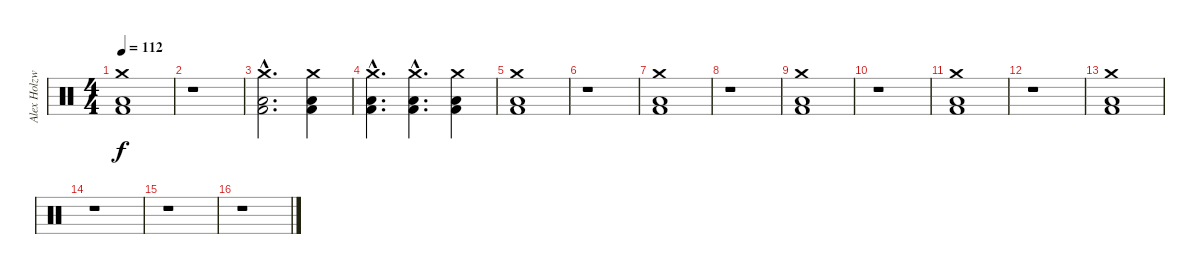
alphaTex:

\track ("Alex Holzwarth - Drums" "Alex Holzw") {instrument percussion}
\staff {score}
\articulation defaults
\ts (4 4)
\tempo 112
\clef neutral
\ks c
("Crash medium (hit)" "Low Floor Tom (hit)" "Kick (hit) 2").1{dy f} |
r.1 |
("Crash medium (hit)"{hac} "Low Floor Tom (hit)"{hac} "Kick (hit) 2"{hac}).2{d} ("Crash medium (hit)" "Low Floor Tom (hit)" "Kick (hit) 2").4 |
("Crash medium (hit)"{hac} "Low Floor Tom (hit)"{hac} "Kick (hit) 2"{hac}).4{d} ("Crash medium (hit)"{hac} "Low Floor Tom (hit)"{hac} "Kick (hit) 2"{hac}).4{d} ("Crash medium (hit)" "Low Floor Tom (hit)" "Kick (hit) 2").4 |
("Crash medium (hit)" "Low Floor Tom (hit)" "Kick (hit) 2").1 |
r.1 |
("Crash medium (hit)" "Low Floor Tom (hit)" "Kick (hit) 2").1 |
r.1 |
("Crash medium (hit)" "Low Floor Tom (hit)" "Kick (hit) 2").1 |
r.1 |
("Crash medium (hit)" "Low Floor Tom (hit)" "Kick (hit) 2").1 |
r.1 |
("Crash medium (hit)" "Low Floor Tom (hit)" "Kick (hit) 2").1 |
r.1 |
r.1 |
r.1
